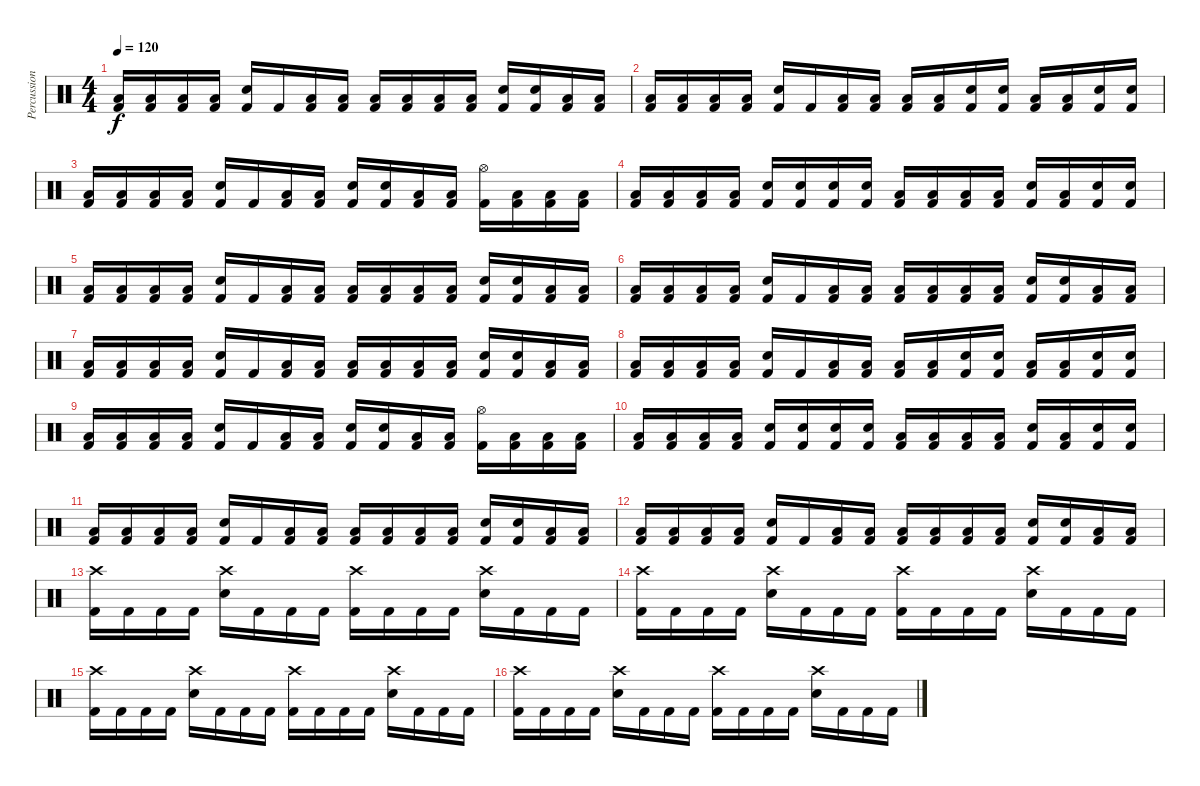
\track ("Percussion" "Percussion") {instrument percussion}
\staff {score}
\articulation defaults
\ts (4 4)
\tempo 120
\clef neutral
\ks c
("Low Tom (hit)" "Kick (hit) 2").16{dy f} ("Low Tom (hit)" "Kick (hit) 2").16 ("Low Tom (hit)" "Kick (hit) 2").16 ("Low Tom (hit)" "Kick (hit) 2").16 ("Electric Snare (hit)" "Kick (hit) 2").16 "Kick (hit) 2".16 ("Low Tom (hit)" "Kick (hit) 2").16 ("Low Tom (hit)" "Kick (hit) 2").16 ("Low Tom (hit)" "Kick (hit) 2").16 ("Low Tom (hit)" "Kick (hit) 2").16 ("Low Tom (hit)" "Kick (hit) 2").16 ("Low Tom (hit)" "Kick (hit) 2").16 ("Electric Snare (hit)" "Kick (hit) 2").16 ("Electric Snare (hit)" "Kick (hit) 2").16 ("Low Tom (hit)" "Kick (hit) 2").16 ("Low Tom (hit)" "Kick (hit) 2").16 |
("Low Tom (hit)" "Kick (hit) 2").16 ("Low Tom (hit)" "Kick (hit) 2").16 ("Low Tom (hit)" "Kick (hit) 2").16 ("Low Tom (hit)" "Kick (hit) 2").16 ("Electric Snare (hit)" "Kick (hit) 2").16 "Kick (hit) 2".16 ("Low Tom (hit)" "Kick (hit) 2").16 ("Low Tom (hit)" "Kick (hit) 2").16 ("Low Tom (hit)" "Kick (hit) 2").16 ("Low Tom (hit)" "Kick (hit) 2").16 ("Electric Snare (hit)" "Kick (hit) 2").16 ("Electric Snare (hit)" "Kick (hit) 2").16 ("Low Tom (hit)" "Kick (hit) 2").16 ("Low Tom (hit)" "Kick (hit) 2").16 ("Electric Snare (hit)" "Kick (hit) 2").16 ("Electric Snare (hit)" "Kick (hit) 2").16 |
("Low Tom (hit)" "Kick (hit) 2").16 ("Low Tom (hit)" "Kick (hit) 2").16 ("Low Tom (hit)" "Kick (hit) 2").16 ("Low Tom (hit)" "Kick (hit) 2").16 ("Electric Snare (hit)" "Kick (hit) 2").16 "Kick (hit) 2".16 ("Low Tom (hit)" "Kick (hit) 2").16 ("Low Tom (hit)" "Kick (hit) 2").16 ("Electric Snare (hit)" "Kick (hit) 2").16 ("Electric Snare (hit)" "Kick (hit) 2").16 ("Low Tom (hit)" "Kick (hit) 2").16 ("Low Tom (hit)" "Kick (hit) 2").16 ("Hi-Hat (open)" "Kick (hit) 2").16 ("Low Tom (hit)" "Kick (hit) 2").16 ("Low Tom (hit)" "Kick (hit) 2").16 ("Low Tom (hit)" "Kick (hit) 2").16 |
("Low Tom (hit)" "Kick (hit) 2").16 ("Low Tom (hit)" "Kick (hit) 2").16 ("Low Tom (hit)" "Kick (hit) 2").16 ("Low Tom (hit)" "Kick (hit) 2").16 ("Electric Snare (hit)" "Kick (hit) 2").16 ("Electric Snare (hit)" "Kick (hit) 2").16 ("Electric Snare (hit)" "Kick (hit) 2").16 ("Electric Snare (hit)" "Kick (hit) 2").16 ("Low Tom (hit)" "Kick (hit) 2").16 ("Low Tom (hit)" "Kick (hit) 2").16 ("Low Tom (hit)" "Kick (hit) 2").16 ("Low Tom (hit)" "Kick (hit) 2").16 ("Electric Snare (hit)" "Kick (hit) 2").16 ("Low Tom (hit)" "Kick (hit) 2").16 ("Electric Snare (hit)" "Kick (hit) 2").16 ("Electric Snare (hit)" "Kick (hit) 2").16 |
("Low Tom (hit)" "Kick (hit) 2").16 ("Low Tom (hit)" "Kick (hit) 2").16 ("Low Tom (hit)" "Kick (hit) 2").16 ("Low Tom (hit)" "Kick (hit) 2").16 ("Electric Snare (hit)" "Kick (hit) 2").16 "Kick (hit) 2".16 ("Low Tom (hit)" "Kick (hit) 2").16 ("Low Tom (hit)" "Kick (hit) 2").16 ("Low Tom (hit)" "Kick (hit) 2").16 ("Low Tom (hit)" "Kick (hit) 2").16 ("Low Tom (hit)" "Kick (hit) 2").16 ("Low Tom (hit)" "Kick (hit) 2").16 ("Electric Snare (hit)" "Kick (hit) 2").16 ("Electric Snare (hit)" "Kick (hit) 2").16 ("Low Tom (hit)" "Kick (hit) 2").16 ("Low Tom (hit)" "Kick (hit) 2").16 |
("Low Tom (hit)" "Kick (hit) 2").16 ("Low Tom (hit)" "Kick (hit) 2").16 ("Low Tom (hit)" "Kick (hit) 2").16 ("Low Tom (hit)" "Kick (hit) 2").16 ("Electric Snare (hit)" "Kick (hit) 2").16 "Kick (hit) 2".16 ("Low Tom (hit)" "Kick (hit) 2").16 ("Low Tom (hit)" "Kick (hit) 2").16 ("Low Tom (hit)" "Kick (hit) 2").16 ("Low Tom (hit)" "Kick (hit) 2").16 ("Low Tom (hit)" "Kick (hit) 2").16 ("Low Tom (hit)" "Kick (hit) 2").16 ("Electric Snare (hit)" "Kick (hit) 2").16 ("Electric Snare (hit)" "Kick (hit) 2").16 ("Low Tom (hit)" "Kick (hit) 2").16 ("Low Tom (hit)" "Kick (hit) 2").16 |
("Low Tom (hit)" "Kick (hit) 2").16 ("Low Tom (hit)" "Kick (hit) 2").16 ("Low Tom (hit)" "Kick (hit) 2").16 ("Low Tom (hit)" "Kick (hit) 2").16 ("Electric Snare (hit)" "Kick (hit) 2").16 "Kick (hit) 2".16 ("Low Tom (hit)" "Kick (hit) 2").16 ("Low Tom (hit)" "Kick (hit) 2").16 ("Low Tom (hit)" "Kick (hit) 2").16 ("Low Tom (hit)" "Kick (hit) 2").16 ("Low Tom (hit)" "Kick (hit) 2").16 ("Low Tom (hit)" "Kick (hit) 2").16 ("Electric Snare (hit)" "Kick (hit) 2").16 ("Electric Snare (hit)" "Kick (hit) 2").16 ("Low Tom (hit)" "Kick (hit) 2").16 ("Low Tom (hit)" "Kick (hit) 2").16 |
("Low Tom (hit)" "Kick (hit) 2").16 ("Low Tom (hit)" "Kick (hit) 2").16 ("Low Tom (hit)" "Kick (hit) 2").16 ("Low Tom (hit)" "Kick (hit) 2").16 ("Electric Snare (hit)" "Kick (hit) 2").16 "Kick (hit) 2".16 ("Low Tom (hit)" "Kick (hit) 2").16 ("Low Tom (hit)" "Kick (hit) 2").16 ("Low Tom (hit)" "Kick (hit) 2").16 ("Low Tom (hit)" "Kick (hit) 2").16 ("Electric Snare (hit)" "Kick (hit) 2").16 ("Electric Snare (hit)" "Kick (hit) 2").16 ("Low Tom (hit)" "Kick (hit) 2").16 ("Low Tom (hit)" "Kick (hit) 2").16 ("Electric Snare (hit)" "Kick (hit) 2").16 ("Electric Snare (hit)" "Kick (hit) 2").16 |
("Low Tom (hit)" "Kick (hit) 2").16 ("Low Tom (hit)" "Kick (hit) 2").16 ("Low Tom (hit)" "Kick (hit) 2").16 ("Low Tom (hit)" "Kick (hit) 2").16 ("Electric Snare (hit)" "Kick (hit) 2").16 "Kick (hit) 2".16 ("Low Tom (hit)" "Kick (hit) 2").16 ("Low Tom (hit)" "Kick (hit) 2").16 ("Electric Snare (hit)" "Kick (hit) 2").16 ("Electric Snare (hit)" "Kick (hit) 2").16 ("Low Tom (hit)" "Kick (hit) 2").16 ("Low Tom (hit)" "Kick (hit) 2").16 ("Hi-Hat (open)" "Kick (hit) 2").16 ("Low Tom (hit)" "Kick (hit) 2").16 ("Low Tom (hit)" "Kick (hit) 2").16 ("Low Tom (hit)" "Kick (hit) 2").16 |
("Low Tom (hit)" "Kick (hit) 2").16 ("Low Tom (hit)" "Kick (hit) 2").16 ("Low Tom (hit)" "Kick (hit) 2").16 ("Low Tom (hit)" "Kick (hit) 2").16 ("Electric Snare (hit)" "Kick (hit) 2").16 ("Electric Snare (hit)" "Kick (hit) 2").16 ("Electric Snare (hit)" "Kick (hit) 2").16 ("Electric Snare (hit)" "Kick (hit) 2").16 ("Low Tom (hit)" "Kick (hit) 2").16 ("Low Tom (hit)" "Kick (hit) 2").16 ("Low Tom (hit)" "Kick (hit) 2").16 ("Low Tom (hit)" "Kick (hit) 2").16 ("Electric Snare (hit)" "Kick (hit) 2").16 ("Low Tom (hit)" "Kick (hit) 2").16 ("Electric Snare (hit)" "Kick (hit) 2").16 ("Electric Snare (hit)" "Kick (hit) 2").16 |
("Low Tom (hit)" "Kick (hit) 2").16 ("Low Tom (hit)" "Kick (hit) 2").16 ("Low Tom (hit)" "Kick (hit) 2").16 ("Low Tom (hit)" "Kick (hit) 2").16 ("Electric Snare (hit)" "Kick (hit) 2").16 "Kick (hit) 2".16 ("Low Tom (hit)" "Kick (hit) 2").16 ("Low Tom (hit)" "Kick (hit) 2").16 ("Low Tom (hit)" "Kick (hit) 2").16 ("Low Tom (hit)" "Kick (hit) 2").16 ("Low Tom (hit)" "Kick (hit) 2").16 ("Low Tom (hit)" "Kick (hit) 2").16 ("Electric Snare (hit)" "Kick (hit) 2").16 ("Electric Snare (hit)" "Kick (hit) 2").16 ("Low Tom (hit)" "Kick (hit) 2").16 ("Low Tom (hit)" "Kick (hit) 2").16 |
("Low Tom (hit)" "Kick (hit) 2").16 ("Low Tom (hit)" "Kick (hit) 2").16 ("Low Tom (hit)" "Kick (hit) 2").16 ("Low Tom (hit)" "Kick (hit) 2").16 ("Electric Snare (hit)" "Kick (hit) 2").16 "Kick (hit) 2".16 ("Low Tom (hit)" "Kick (hit) 2").16 ("Low Tom (hit)" "Kick (hit) 2").16 ("Low Tom (hit)" "Kick (hit) 2").16 ("Low Tom (hit)" "Kick (hit) 2").16 ("Low Tom (hit)" "Kick (hit) 2").16 ("Low Tom (hit)" "Kick (hit) 2").16 ("Electric Snare (hit)" "Kick (hit) 2").16 ("Electric Snare (hit)" "Kick (hit) 2").16 ("Low Tom (hit)" "Kick (hit) 2").16 ("Low Tom (hit)" "Kick (hit) 2").16 |
("Crash high (hit)" "Kick (hit) 2").16 "Kick (hit) 2".16 "Kick (hit) 2".16 "Kick (hit) 2".16 ("Crash high (hit)" "Electric Snare (hit)").16 "Kick (hit) 2".16 "Kick (hit) 2".16 "Kick (hit) 2".16 ("Crash high (hit)" "Kick (hit) 2").16 "Kick (hit) 2".16 "Kick (hit) 2".16 "Kick (hit) 2".16 ("Crash high (hit)" "Electric Snare (hit)").16 "Kick (hit) 2".16 "Kick (hit) 2".16 "Kick (hit) 2".16 |
("Crash high (hit)" "Kick (hit) 2").16 "Kick (hit) 2".16 "Kick (hit) 2".16 "Kick (hit) 2".16 ("Crash high (hit)" "Electric Snare (hit)").16 "Kick (hit) 2".16 "Kick (hit) 2".16 "Kick (hit) 2".16 ("Crash high (hit)" "Kick (hit) 2").16 "Kick (hit) 2".16 "Kick (hit) 2".16 "Kick (hit) 2".16 ("Crash high (hit)" "Electric Snare (hit)").16 "Kick (hit) 2".16 "Kick (hit) 2".16 "Kick (hit) 2".16 |
("Crash high (hit)" "Kick (hit) 2").16 "Kick (hit) 2".16 "Kick (hit) 2".16 "Kick (hit) 2".16 ("Crash high (hit)" "Electric Snare (hit)").16 "Kick (hit) 2".16 "Kick (hit) 2".16 "Kick (hit) 2".16 ("Crash high (hit)" "Kick (hit) 2").16 "Kick (hit) 2".16 "Kick (hit) 2".16 "Kick (hit) 2".16 ("Crash high (hit)" "Electric Snare (hit)").16 "Kick (hit) 2".16 "Kick (hit) 2".16 "Kick (hit) 2".16 |
("Crash high (hit)" "Kick (hit) 2").16 "Kick (hit) 2".16 "Kick (hit) 2".16 "Kick (hit) 2".16 ("Crash high (hit)" "Electric Snare (hit)").16 "Kick (hit) 2".16 "Kick (hit) 2".16 "Kick (hit) 2".16 ("Crash high (hit)" "Kick (hit) 2").16 "Kick (hit) 2".16 "Kick (hit) 2".16 "Kick (hit) 2".16 ("Crash high (hit)" "Electric Snare (hit)").16 "Kick (hit) 2".16 "Kick (hit) 2".16 "Kick (hit) 2".16
